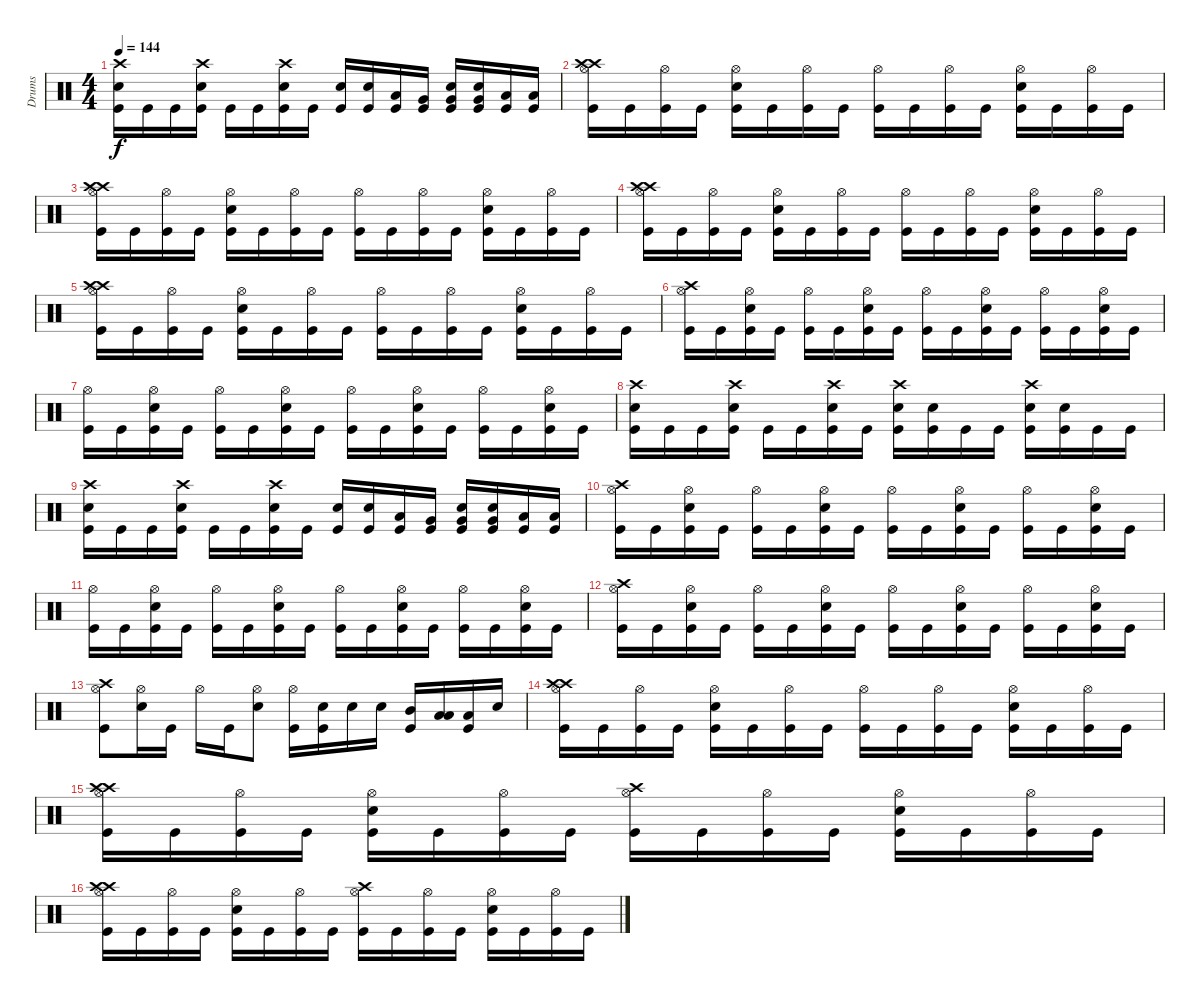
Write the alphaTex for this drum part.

\track ("Drums" "Drums") {instrument percussion}
\staff {score}
\articulation defaults
\ts (4 4)
\tempo 144
\clef neutral
\ks c
("Crash high (hit)" "Electric Snare (hit)" "Kick (hit)").16{dy f} "Kick (hit)".16 "Kick (hit)".16 ("Crash high (hit)" "Electric Snare (hit)" "Kick (hit)").16 "Kick (hit)".16 "Kick (hit)".16 ("Crash high (hit)" "Electric Snare (hit)" "Kick (hit)").16 "Kick (hit)".16 ("Electric Snare (hit)" "Kick (hit)").16 ("Electric Snare (hit)" "Kick (hit)").16 ("Low Tom (hit)" "Kick (hit)").16 ("Very Low Tom (hit)" "Kick (hit)").16 ("Very Low Tom (hit)" "Electric Snare (hit)" "Kick (hit)").16 ("Very Low Tom (hit)" "Electric Snare (hit)" "Kick (hit)").16 ("Low Floor Tom (hit)" "Kick (hit)").16 ("Low Floor Tom (hit)" "Kick (hit)").16 |
("Crash high (hit)" "Hi-Hat (open)" "Crash high (hit)" "Kick (hit)").16 "Kick (hit)".16 ("Kick (hit)" "Hi-Hat (open)").16 "Kick (hit)".16 ("Electric Snare (hit)" "Kick (hit)" "Hi-Hat (open)").16 "Kick (hit)".16 ("Kick (hit)" "Hi-Hat (open)").16 "Kick (hit)".16 ("Hi-Hat (open)" "Kick (hit)").16 "Kick (hit)".16 ("Kick (hit)" "Hi-Hat (open)").16 "Kick (hit)".16 ("Electric Snare (hit)" "Kick (hit)" "Hi-Hat (open)").16 "Kick (hit)".16 ("Kick (hit)" "Hi-Hat (open)").16 "Kick (hit)".16 |
("Crash high (hit)" "Hi-Hat (open)" "Crash high (hit)" "Kick (hit)").16 "Kick (hit)".16 ("Kick (hit)" "Hi-Hat (open)").16 "Kick (hit)".16 ("Electric Snare (hit)" "Kick (hit)" "Hi-Hat (open)").16 "Kick (hit)".16 ("Kick (hit)" "Hi-Hat (open)").16 "Kick (hit)".16 ("Hi-Hat (open)" "Kick (hit)").16 "Kick (hit)".16 ("Kick (hit)" "Hi-Hat (open)").16 "Kick (hit)".16 ("Electric Snare (hit)" "Kick (hit)" "Hi-Hat (open)").16 "Kick (hit)".16 ("Kick (hit)" "Hi-Hat (open)").16 "Kick (hit)".16 |
("Crash high (hit)" "Hi-Hat (open)" "Crash high (hit)" "Kick (hit)").16 "Kick (hit)".16 ("Kick (hit)" "Hi-Hat (open)").16 "Kick (hit)".16 ("Electric Snare (hit)" "Kick (hit)" "Hi-Hat (open)").16 "Kick (hit)".16 ("Kick (hit)" "Hi-Hat (open)").16 "Kick (hit)".16 ("Hi-Hat (open)" "Kick (hit)").16 "Kick (hit)".16 ("Kick (hit)" "Hi-Hat (open)").16 "Kick (hit)".16 ("Electric Snare (hit)" "Kick (hit)" "Hi-Hat (open)").16 "Kick (hit)".16 ("Kick (hit)" "Hi-Hat (open)").16 "Kick (hit)".16 |
("Crash high (hit)" "Hi-Hat (open)" "Crash high (hit)" "Kick (hit)").16 "Kick (hit)".16 ("Kick (hit)" "Hi-Hat (open)").16 "Kick (hit)".16 ("Electric Snare (hit)" "Kick (hit)" "Hi-Hat (open)").16 "Kick (hit)".16 ("Kick (hit)" "Hi-Hat (open)").16 "Kick (hit)".16 ("Hi-Hat (open)" "Kick (hit)").16 "Kick (hit)".16 ("Kick (hit)" "Hi-Hat (open)").16 "Kick (hit)".16 ("Electric Snare (hit)" "Kick (hit)" "Hi-Hat (open)").16 "Kick (hit)".16 ("Kick (hit)" "Hi-Hat (open)").16 "Kick (hit)".16 |
("Hi-Hat (open)" "Crash high (hit)" "Kick (hit)").16 "Kick (hit)".16 ("Kick (hit)" "Hi-Hat (open)" "Electric Snare (hit)").16 "Kick (hit)".16 ("Kick (hit)" "Hi-Hat (open)").16 "Kick (hit)".16 ("Kick (hit)" "Hi-Hat (open)" "Electric Snare (hit)").16 "Kick (hit)".16 ("Hi-Hat (open)" "Kick (hit)").16 "Kick (hit)".16 ("Kick (hit)" "Hi-Hat (open)" "Electric Snare (hit)").16 "Kick (hit)".16 ("Kick (hit)" "Hi-Hat (open)").16 "Kick (hit)".16 ("Kick (hit)" "Hi-Hat (open)" "Electric Snare (hit)").16 "Kick (hit)".16 |
("Hi-Hat (open)" "Kick (hit)").16 "Kick (hit)".16 ("Kick (hit)" "Hi-Hat (open)" "Electric Snare (hit)").16 "Kick (hit)".16 ("Kick (hit)" "Hi-Hat (open)").16 "Kick (hit)".16 ("Kick (hit)" "Hi-Hat (open)" "Electric Snare (hit)").16 "Kick (hit)".16 ("Hi-Hat (open)" "Kick (hit)").16 "Kick (hit)".16 ("Kick (hit)" "Hi-Hat (open)" "Electric Snare (hit)").16 "Kick (hit)".16 ("Kick (hit)" "Hi-Hat (open)").16 "Kick (hit)".16 ("Kick (hit)" "Hi-Hat (open)" "Electric Snare (hit)").16 "Kick (hit)".16 |
("Crash high (hit)" "Electric Snare (hit)" "Kick (hit)").16 "Kick (hit)".16 "Kick (hit)".16 ("Crash high (hit)" "Electric Snare (hit)" "Kick (hit)").16 "Kick (hit)".16 "Kick (hit)".16 ("Crash high (hit)" "Electric Snare (hit)" "Kick (hit)").16 "Kick (hit)".16 ("Crash high (hit)" "Electric Snare (hit)" "Kick (hit)").16 ("Electric Snare (hit)" "Kick (hit)").16 "Kick (hit)".16 "Kick (hit)".16 ("Crash high (hit)" "Electric Snare (hit)" "Kick (hit)").16 ("Electric Snare (hit)" "Kick (hit)").16 "Kick (hit)".16 "Kick (hit)".16 |
("Crash high (hit)" "Electric Snare (hit)" "Kick (hit)").16 "Kick (hit)".16 "Kick (hit)".16 ("Crash high (hit)" "Electric Snare (hit)" "Kick (hit)").16 "Kick (hit)".16 "Kick (hit)".16 ("Crash high (hit)" "Electric Snare (hit)" "Kick (hit)").16 "Kick (hit)".16 ("Electric Snare (hit)" "Kick (hit)").16 ("Electric Snare (hit)" "Kick (hit)").16 ("Low Tom (hit)" "Kick (hit)").16 ("Very Low Tom (hit)" "Kick (hit)").16 ("Very Low Tom (hit)" "Electric Snare (hit)" "Kick (hit)").16 ("Very Low Tom (hit)" "Electric Snare (hit)" "Kick (hit)").16 ("Low Floor Tom (hit)" "Kick (hit)").16 ("Low Floor Tom (hit)" "Kick (hit)").16 |
("Hi-Hat (open)" "Crash high (hit)" "Kick (hit)").16 "Kick (hit)".16 ("Kick (hit)" "Hi-Hat (open)" "Electric Snare (hit)").16 "Kick (hit)".16 ("Kick (hit)" "Hi-Hat (open)").16 "Kick (hit)".16 ("Kick (hit)" "Hi-Hat (open)" "Electric Snare (hit)").16 "Kick (hit)".16 ("Hi-Hat (open)" "Kick (hit)").16 "Kick (hit)".16 ("Kick (hit)" "Hi-Hat (open)" "Electric Snare (hit)").16 "Kick (hit)".16 ("Kick (hit)" "Hi-Hat (open)").16 "Kick (hit)".16 ("Kick (hit)" "Hi-Hat (open)" "Electric Snare (hit)").16 "Kick (hit)".16 |
("Hi-Hat (open)" "Kick (hit)").16 "Kick (hit)".16 ("Kick (hit)" "Hi-Hat (open)" "Electric Snare (hit)").16 "Kick (hit)".16 ("Kick (hit)" "Hi-Hat (open)").16 "Kick (hit)".16 ("Kick (hit)" "Hi-Hat (open)" "Electric Snare (hit)").16 "Kick (hit)".16 ("Hi-Hat (open)" "Kick (hit)").16 "Kick (hit)".16 ("Kick (hit)" "Hi-Hat (open)" "Electric Snare (hit)").16 "Kick (hit)".16 ("Kick (hit)" "Hi-Hat (open)").16 "Kick (hit)".16 ("Kick (hit)" "Hi-Hat (open)" "Electric Snare (hit)").16 "Kick (hit)".16 |
("Hi-Hat (open)" "Crash high (hit)" "Kick (hit)").16 "Kick (hit)".16 ("Kick (hit)" "Hi-Hat (open)" "Electric Snare (hit)").16 "Kick (hit)".16 ("Kick (hit)" "Hi-Hat (open)").16 "Kick (hit)".16 ("Kick (hit)" "Hi-Hat (open)" "Electric Snare (hit)").16 "Kick (hit)".16 ("Hi-Hat (open)" "Kick (hit)").16 "Kick (hit)".16 ("Kick (hit)" "Hi-Hat (open)" "Electric Snare (hit)").16 "Kick (hit)".16 ("Kick (hit)" "Hi-Hat (open)").16 "Kick (hit)".16 ("Kick (hit)" "Hi-Hat (open)" "Electric Snare (hit)").16 "Kick (hit)".16 |
("Hi-Hat (open)" "Crash high (hit)" "Kick (hit)").8 ("Hi-Hat (open)" "Electric Snare (hit)").16 "Kick (hit)".16 "Hi-Hat (open)".16 "Kick (hit)".16 ("Hi-Hat (open)" "Electric Snare (hit)").8 ("Hi-Hat (open)" "Kick (hit)").16 ("Electric Snare (hit)" "Kick (hit)").16 "Electric Snare (hit)".16 "Electric Snare (hit)".16 ("Mid Tom (hit)" "Kick (hit)").16 ("Low Floor Tom (hit)" "Low Tom (hit)").16 ("Low Floor Tom (hit)" "Kick (hit)").16 "Electric Snare (hit)".16 |
("Crash high (hit)" "Hi-Hat (open)" "Crash high (hit)" "Kick (hit)").16 "Kick (hit)".16 ("Kick (hit)" "Hi-Hat (open)").16 "Kick (hit)".16 ("Electric Snare (hit)" "Kick (hit)" "Hi-Hat (open)").16 "Kick (hit)".16 ("Kick (hit)" "Hi-Hat (open)").16 "Kick (hit)".16 ("Hi-Hat (open)" "Kick (hit)").16 "Kick (hit)".16 ("Kick (hit)" "Hi-Hat (open)").16 "Kick (hit)".16 ("Electric Snare (hit)" "Kick (hit)" "Hi-Hat (open)").16 "Kick (hit)".16 ("Kick (hit)" "Hi-Hat (open)").16 "Kick (hit)".16 |
("Crash high (hit)" "Hi-Hat (open)" "Crash high (hit)" "Kick (hit)").16 "Kick (hit)".16 ("Kick (hit)" "Hi-Hat (open)").16 "Kick (hit)".16 ("Electric Snare (hit)" "Kick (hit)" "Hi-Hat (open)").16 "Kick (hit)".16 ("Kick (hit)" "Hi-Hat (open)").16 "Kick (hit)".16 ("Crash high (hit)" "Hi-Hat (open)" "Kick (hit)").16 "Kick (hit)".16 ("Kick (hit)" "Hi-Hat (open)").16 "Kick (hit)".16 ("Electric Snare (hit)" "Kick (hit)" "Hi-Hat (open)").16 "Kick (hit)".16 ("Kick (hit)" "Hi-Hat (open)").16 "Kick (hit)".16 |
("Crash high (hit)" "Hi-Hat (open)" "Crash high (hit)" "Kick (hit)").16 "Kick (hit)".16 ("Kick (hit)" "Hi-Hat (open)").16 "Kick (hit)".16 ("Electric Snare (hit)" "Kick (hit)" "Hi-Hat (open)").16 "Kick (hit)".16 ("Kick (hit)" "Hi-Hat (open)").16 "Kick (hit)".16 ("Crash high (hit)" "Hi-Hat (open)" "Kick (hit)").16 "Kick (hit)".16 ("Kick (hit)" "Hi-Hat (open)").16 "Kick (hit)".16 ("Electric Snare (hit)" "Kick (hit)" "Hi-Hat (open)").16 "Kick (hit)".16 ("Kick (hit)" "Hi-Hat (open)").16 "Kick (hit)".16
